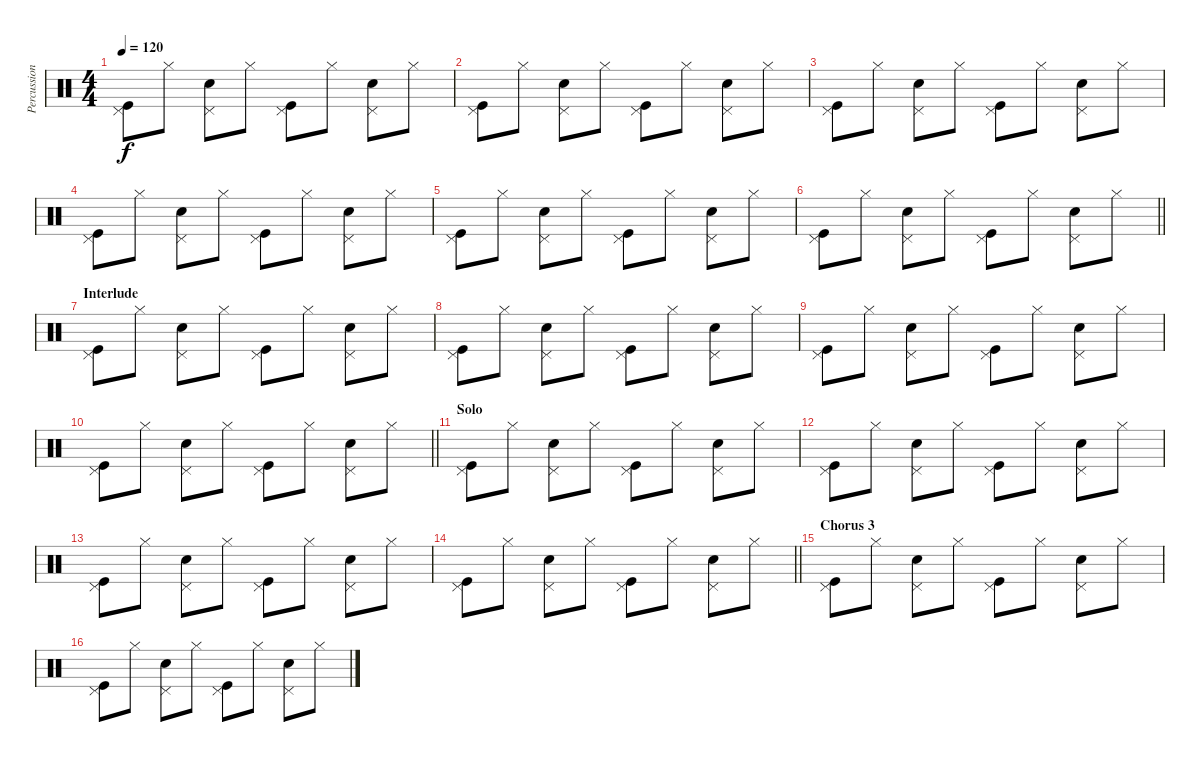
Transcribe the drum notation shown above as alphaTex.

\track ("Percussion - Ian Astbury" "Percussion") {instrument percussion}
\staff {score}
\articulation defaults
\ts (4 4)
\tempo 120
\clef neutral
\ks c
("Pedal Hi-Hat (hit)" "Kick (hit)").8{dy f} "Hi-Hat (closed)".8 ("Pedal Hi-Hat (hit)" "Electric Snare (hit)").8 "Hi-Hat (closed)".8 ("Pedal Hi-Hat (hit)" "Kick (hit)").8 "Hi-Hat (closed)".8 ("Pedal Hi-Hat (hit)" "Electric Snare (hit)").8 "Hi-Hat (closed)".8 |
("Pedal Hi-Hat (hit)" "Kick (hit)").8 "Hi-Hat (closed)".8 ("Pedal Hi-Hat (hit)" "Electric Snare (hit)").8 "Hi-Hat (closed)".8 ("Pedal Hi-Hat (hit)" "Kick (hit)").8 "Hi-Hat (closed)".8 ("Pedal Hi-Hat (hit)" "Electric Snare (hit)").8 "Hi-Hat (closed)".8 |
("Pedal Hi-Hat (hit)" "Kick (hit)").8 "Hi-Hat (closed)".8 ("Pedal Hi-Hat (hit)" "Electric Snare (hit)").8 "Hi-Hat (closed)".8 ("Pedal Hi-Hat (hit)" "Kick (hit)").8 "Hi-Hat (closed)".8 ("Pedal Hi-Hat (hit)" "Electric Snare (hit)").8 "Hi-Hat (closed)".8 |
("Pedal Hi-Hat (hit)" "Kick (hit)").8 "Hi-Hat (closed)".8 ("Pedal Hi-Hat (hit)" "Electric Snare (hit)").8 "Hi-Hat (closed)".8 ("Pedal Hi-Hat (hit)" "Kick (hit)").8 "Hi-Hat (closed)".8 ("Pedal Hi-Hat (hit)" "Electric Snare (hit)").8 "Hi-Hat (closed)".8 |
("Pedal Hi-Hat (hit)" "Kick (hit)").8 "Hi-Hat (closed)".8 ("Pedal Hi-Hat (hit)" "Electric Snare (hit)").8 "Hi-Hat (closed)".8 ("Pedal Hi-Hat (hit)" "Kick (hit)").8 "Hi-Hat (closed)".8 ("Pedal Hi-Hat (hit)" "Electric Snare (hit)").8 "Hi-Hat (closed)".8 |
\barLineRight lightlight
("Pedal Hi-Hat (hit)" "Kick (hit)").8 "Hi-Hat (closed)".8 ("Pedal Hi-Hat (hit)" "Electric Snare (hit)").8 "Hi-Hat (closed)".8 ("Pedal Hi-Hat (hit)" "Kick (hit)").8 "Hi-Hat (closed)".8 ("Pedal Hi-Hat (hit)" "Electric Snare (hit)").8 "Hi-Hat (closed)".8 |
\section ("" "Interlude")
("Pedal Hi-Hat (hit)" "Kick (hit)").8 "Hi-Hat (closed)".8 ("Pedal Hi-Hat (hit)" "Electric Snare (hit)").8 "Hi-Hat (closed)".8 ("Pedal Hi-Hat (hit)" "Kick (hit)").8 "Hi-Hat (closed)".8 ("Pedal Hi-Hat (hit)" "Electric Snare (hit)").8 "Hi-Hat (closed)".8 |
("Pedal Hi-Hat (hit)" "Kick (hit)").8 "Hi-Hat (closed)".8 ("Pedal Hi-Hat (hit)" "Electric Snare (hit)").8 "Hi-Hat (closed)".8 ("Pedal Hi-Hat (hit)" "Kick (hit)").8 "Hi-Hat (closed)".8 ("Pedal Hi-Hat (hit)" "Electric Snare (hit)").8 "Hi-Hat (closed)".8 |
("Pedal Hi-Hat (hit)" "Kick (hit)").8 "Hi-Hat (closed)".8 ("Pedal Hi-Hat (hit)" "Electric Snare (hit)").8 "Hi-Hat (closed)".8 ("Pedal Hi-Hat (hit)" "Kick (hit)").8 "Hi-Hat (closed)".8 ("Pedal Hi-Hat (hit)" "Electric Snare (hit)").8 "Hi-Hat (closed)".8 |
\barLineRight lightlight
("Pedal Hi-Hat (hit)" "Kick (hit)").8 "Hi-Hat (closed)".8 ("Pedal Hi-Hat (hit)" "Electric Snare (hit)").8 "Hi-Hat (closed)".8 ("Pedal Hi-Hat (hit)" "Kick (hit)").8 "Hi-Hat (closed)".8 ("Pedal Hi-Hat (hit)" "Electric Snare (hit)").8 "Hi-Hat (closed)".8 |
\section ("" "Solo")
("Pedal Hi-Hat (hit)" "Kick (hit)").8 "Hi-Hat (closed)".8 ("Pedal Hi-Hat (hit)" "Electric Snare (hit)").8 "Hi-Hat (closed)".8 ("Pedal Hi-Hat (hit)" "Kick (hit)").8 "Hi-Hat (closed)".8 ("Pedal Hi-Hat (hit)" "Electric Snare (hit)").8 "Hi-Hat (closed)".8 |
("Pedal Hi-Hat (hit)" "Kick (hit)").8 "Hi-Hat (closed)".8 ("Pedal Hi-Hat (hit)" "Electric Snare (hit)").8 "Hi-Hat (closed)".8 ("Pedal Hi-Hat (hit)" "Kick (hit)").8 "Hi-Hat (closed)".8 ("Pedal Hi-Hat (hit)" "Electric Snare (hit)").8 "Hi-Hat (closed)".8 |
("Pedal Hi-Hat (hit)" "Kick (hit)").8 "Hi-Hat (closed)".8 ("Pedal Hi-Hat (hit)" "Electric Snare (hit)").8 "Hi-Hat (closed)".8 ("Pedal Hi-Hat (hit)" "Kick (hit)").8 "Hi-Hat (closed)".8 ("Pedal Hi-Hat (hit)" "Electric Snare (hit)").8 "Hi-Hat (closed)".8 |
\barLineRight lightlight
("Pedal Hi-Hat (hit)" "Kick (hit)").8 "Hi-Hat (closed)".8 ("Pedal Hi-Hat (hit)" "Electric Snare (hit)").8 "Hi-Hat (closed)".8 ("Pedal Hi-Hat (hit)" "Kick (hit)").8 "Hi-Hat (closed)".8 ("Pedal Hi-Hat (hit)" "Electric Snare (hit)").8 "Hi-Hat (closed)".8 |
\section ("" "Chorus 3")
("Pedal Hi-Hat (hit)" "Kick (hit)").8 "Hi-Hat (closed)".8 ("Pedal Hi-Hat (hit)" "Electric Snare (hit)").8 "Hi-Hat (closed)".8 ("Pedal Hi-Hat (hit)" "Kick (hit)").8 "Hi-Hat (closed)".8 ("Pedal Hi-Hat (hit)" "Electric Snare (hit)").8 "Hi-Hat (closed)".8 |
("Pedal Hi-Hat (hit)" "Kick (hit)").8 "Hi-Hat (closed)".8 ("Pedal Hi-Hat (hit)" "Electric Snare (hit)").8 "Hi-Hat (closed)".8 ("Pedal Hi-Hat (hit)" "Kick (hit)").8 "Hi-Hat (closed)".8 ("Pedal Hi-Hat (hit)" "Electric Snare (hit)").8 "Hi-Hat (closed)".8
